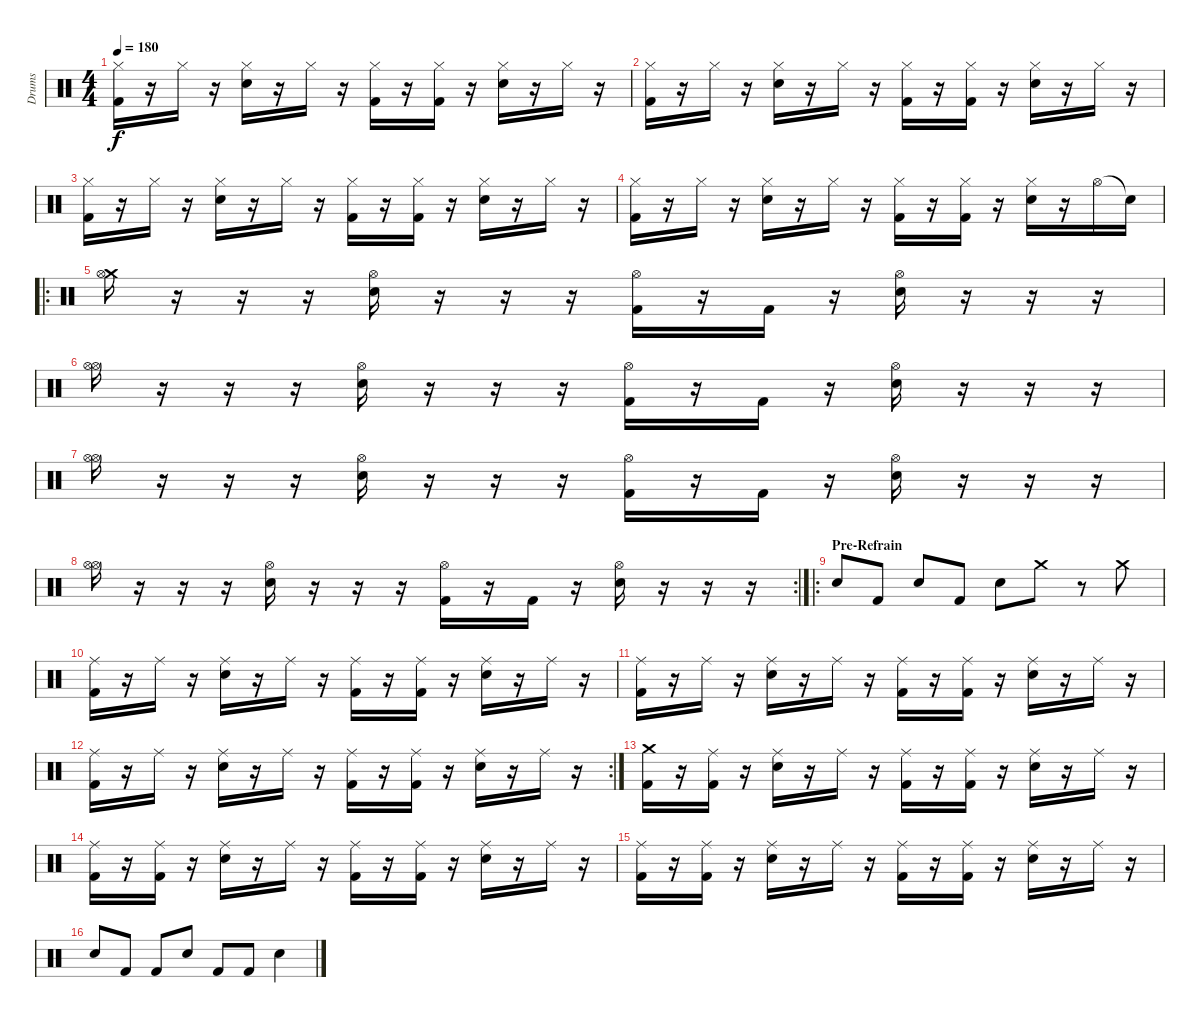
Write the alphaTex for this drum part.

\track ("Drums" "Drums") {instrument percussion}
\staff {score}
\articulation defaults
\ts (4 4)
\tempo 180
\clef neutral
\ks c
("Hi-Hat (closed)" "Kick (hit) 2").16{dy f} r.16 "Hi-Hat (closed)".16 r.16 ("Hi-Hat (closed)" "Electric Snare (hit)").16 r.16 "Hi-Hat (closed)".16 r.16 ("Hi-Hat (closed)" "Kick (hit) 2").16 r.16 ("Hi-Hat (closed)" "Kick (hit) 2").16 r.16 ("Hi-Hat (closed)" "Electric Snare (hit)").16 r.16 "Hi-Hat (closed)".16 r.16 |
("Hi-Hat (closed)" "Kick (hit) 2").16 r.16 "Hi-Hat (closed)".16 r.16 ("Hi-Hat (closed)" "Electric Snare (hit)").16 r.16 "Hi-Hat (closed)".16 r.16 ("Hi-Hat (closed)" "Kick (hit) 2").16 r.16 ("Hi-Hat (closed)" "Kick (hit) 2").16 r.16 ("Hi-Hat (closed)" "Electric Snare (hit)").16 r.16 "Hi-Hat (closed)".16 r.16 |
("Hi-Hat (closed)" "Kick (hit) 2").16 r.16 "Hi-Hat (closed)".16 r.16 ("Hi-Hat (closed)" "Electric Snare (hit)").16 r.16 "Hi-Hat (closed)".16 r.16 ("Hi-Hat (closed)" "Kick (hit) 2").16 r.16 ("Hi-Hat (closed)" "Kick (hit) 2").16 r.16 ("Hi-Hat (closed)" "Electric Snare (hit)").16 r.16 "Hi-Hat (closed)".16 r.16 |
("Hi-Hat (closed)" "Kick (hit) 2").16 r.16 "Hi-Hat (closed)".16 r.16 ("Hi-Hat (closed)" "Electric Snare (hit)").16 r.16 "Hi-Hat (closed)".16 r.16 ("Hi-Hat (closed)" "Kick (hit) 2").16 r.16 ("Hi-Hat (closed)" "Kick (hit) 2").16 r.16 ("Hi-Hat (closed)" "Electric Snare (hit)").16 r.16 "Hi-Hat (open)".16 "Snare (hit)"{t}.16 |
\ro
("Crash medium (hit)" "Hi-Hat (open)").16 r.16 r.16 r.16 ("Hi-Hat (open)" "Electric Snare (hit)").16 r.16 r.16 r.16 ("Hi-Hat (open)" "Kick (hit) 2").16 r.16 "Kick (hit) 2".16 r.16 ("Hi-Hat (open)" "Electric Snare (hit)").16 r.16 r.16 r.16 |
("Hi-Hat (open)" "Hi-Hat (open)").16 r.16 r.16 r.16 ("Hi-Hat (open)" "Electric Snare (hit)").16 r.16 r.16 r.16 ("Hi-Hat (open)" "Kick (hit) 2").16 r.16 "Kick (hit) 2".16 r.16 ("Hi-Hat (open)" "Electric Snare (hit)").16 r.16 r.16 r.16 |
("Hi-Hat (open)" "Hi-Hat (open)").16 r.16 r.16 r.16 ("Hi-Hat (open)" "Electric Snare (hit)").16 r.16 r.16 r.16 ("Hi-Hat (open)" "Kick (hit) 2").16 r.16 "Kick (hit) 2".16 r.16 ("Hi-Hat (open)" "Electric Snare (hit)").16 r.16 r.16 r.16 |
\rc 2
("Hi-Hat (open)" "Hi-Hat (open)").16 r.16 r.16 r.16 ("Hi-Hat (open)" "Electric Snare (hit)").16 r.16 r.16 r.16 ("Hi-Hat (open)" "Kick (hit) 2").16 r.16 "Kick (hit) 2".16 r.16 ("Hi-Hat (open)" "Electric Snare (hit)").16 r.16 r.16 r.16 |
\ro
\section ("" "Pre-Refrain")
"Electric Snare (hit)".8 "Kick (hit) 2".8 "Electric Snare (hit)".8 "Kick (hit) 2".8 "Electric Snare (hit)".8 "Crash medium (hit)".8 r.8 "Crash medium (hit)".8 |
("Ride (middle)" "Kick (hit) 2").16 r.16 "Ride (middle)".16 r.16 ("Ride (middle)" "Electric Snare (hit)").16 r.16 "Ride (middle)".16 r.16 ("Ride (middle)" "Kick (hit) 2").16 r.16 ("Ride (middle)" "Kick (hit) 2").16 r.16 ("Ride (middle)" "Electric Snare (hit)").16 r.16 "Ride (middle)".16 r.16 |
("Ride (middle)" "Kick (hit) 2").16 r.16 "Ride (middle)".16 r.16 ("Ride (middle)" "Electric Snare (hit)").16 r.16 "Ride (middle)".16 r.16 ("Ride (middle)" "Kick (hit) 2").16 r.16 ("Ride (middle)" "Kick (hit) 2").16 r.16 ("Ride (middle)" "Electric Snare (hit)").16 r.16 "Ride (middle)".16 r.16 |
\rc 2
("Ride (middle)" "Kick (hit) 2").16 r.16 "Ride (middle)".16 r.16 ("Ride (middle)" "Electric Snare (hit)").16 r.16 "Ride (middle)".16 r.16 ("Ride (middle)" "Kick (hit) 2").16 r.16 ("Ride (middle)" "Kick (hit) 2").16 r.16 ("Ride (middle)" "Electric Snare (hit)").16 r.16 "Ride (middle)".16 r.16 |
("Crash medium (hit)" "Kick (hit) 2").16 r.16 ("Ride (middle)" "Kick (hit) 2").16 r.16 ("Ride (middle)" "Electric Snare (hit)").16 r.16 "Ride (middle)".16 r.16 ("Ride (middle)" "Kick (hit) 2").16 r.16 ("Ride (middle)" "Kick (hit) 2").16 r.16 ("Ride (middle)" "Electric Snare (hit)").16 r.16 "Ride (middle)".16 r.16 |
("Ride (middle)" "Kick (hit) 2").16 r.16 ("Ride (middle)" "Kick (hit) 2").16 r.16 ("Ride (middle)" "Electric Snare (hit)").16 r.16 "Ride (middle)".16 r.16 ("Ride (middle)" "Kick (hit) 2").16 r.16 ("Ride (middle)" "Kick (hit) 2").16 r.16 ("Ride (middle)" "Electric Snare (hit)").16 r.16 "Ride (middle)".16 r.16 |
("Ride (middle)" "Kick (hit) 2").16 r.16 ("Ride (middle)" "Kick (hit) 2").16 r.16 ("Ride (middle)" "Electric Snare (hit)").16 r.16 "Ride (middle)".16 r.16 ("Ride (middle)" "Kick (hit) 2").16 r.16 ("Ride (middle)" "Kick (hit) 2").16 r.16 ("Ride (middle)" "Electric Snare (hit)").16 r.16 "Ride (middle)".16 r.16 |
"Electric Snare (hit)".8 "Kick (hit) 2".8 "Kick (hit) 2".8 "Electric Snare (hit)".8 "Kick (hit) 2".8 "Kick (hit) 2".8 "Electric Snare (hit)".4
